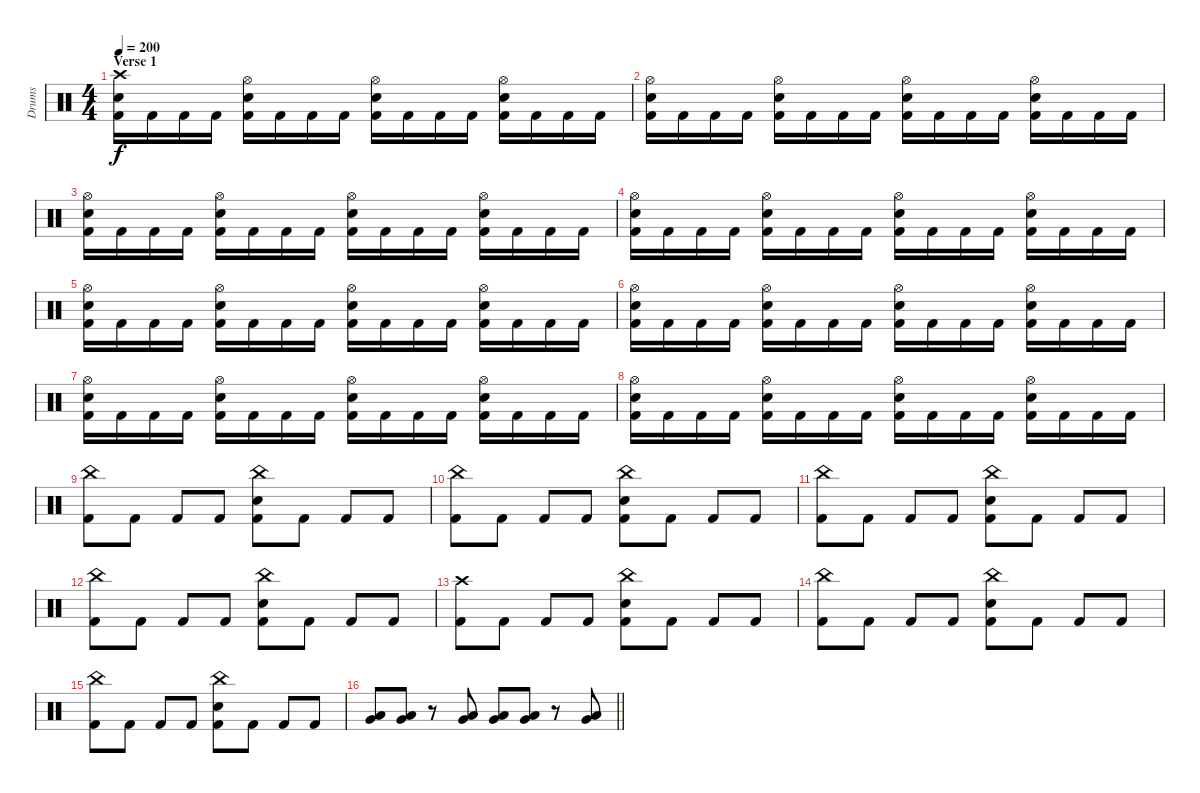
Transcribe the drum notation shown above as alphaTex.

\track ("Drums" "Drums") {instrument percussion}
\staff {score}
\articulation defaults
\ts (4 4)
\section ("" "Verse 1")
\tempo 200
\clef neutral
\ks c
("Crash high (hit)" "Electric Snare (hit)" "Kick (hit) 2").16{dy f} "Kick (hit) 2".16 "Kick (hit) 2".16 "Kick (hit) 2".16 ("Hi-Hat (open)" "Electric Snare (hit)" "Kick (hit) 2").16 "Kick (hit) 2".16 "Kick (hit) 2".16 "Kick (hit) 2".16 ("Hi-Hat (open)" "Electric Snare (hit)" "Kick (hit) 2").16 "Kick (hit) 2".16 "Kick (hit) 2".16 "Kick (hit) 2".16 ("Hi-Hat (open)" "Electric Snare (hit)" "Kick (hit) 2").16 "Kick (hit) 2".16 "Kick (hit) 2".16 "Kick (hit) 2".16 |
("Hi-Hat (open)" "Electric Snare (hit)" "Kick (hit) 2").16 "Kick (hit) 2".16 "Kick (hit) 2".16 "Kick (hit) 2".16 ("Hi-Hat (open)" "Electric Snare (hit)" "Kick (hit) 2").16 "Kick (hit) 2".16 "Kick (hit) 2".16 "Kick (hit) 2".16 ("Hi-Hat (open)" "Electric Snare (hit)" "Kick (hit) 2").16 "Kick (hit) 2".16 "Kick (hit) 2".16 "Kick (hit) 2".16 ("Hi-Hat (open)" "Electric Snare (hit)" "Kick (hit) 2").16 "Kick (hit) 2".16 "Kick (hit) 2".16 "Kick (hit) 2".16 |
("Hi-Hat (open)" "Electric Snare (hit)" "Kick (hit) 2").16 "Kick (hit) 2".16 "Kick (hit) 2".16 "Kick (hit) 2".16 ("Hi-Hat (open)" "Electric Snare (hit)" "Kick (hit) 2").16 "Kick (hit) 2".16 "Kick (hit) 2".16 "Kick (hit) 2".16 ("Hi-Hat (open)" "Electric Snare (hit)" "Kick (hit) 2").16 "Kick (hit) 2".16 "Kick (hit) 2".16 "Kick (hit) 2".16 ("Hi-Hat (open)" "Electric Snare (hit)" "Kick (hit) 2").16 "Kick (hit) 2".16 "Kick (hit) 2".16 "Kick (hit) 2".16 |
("Hi-Hat (open)" "Electric Snare (hit)" "Kick (hit) 2").16 "Kick (hit) 2".16 "Kick (hit) 2".16 "Kick (hit) 2".16 ("Hi-Hat (open)" "Electric Snare (hit)" "Kick (hit) 2").16 "Kick (hit) 2".16 "Kick (hit) 2".16 "Kick (hit) 2".16 ("Hi-Hat (open)" "Electric Snare (hit)" "Kick (hit) 2").16 "Kick (hit) 2".16 "Kick (hit) 2".16 "Kick (hit) 2".16 ("Hi-Hat (open)" "Electric Snare (hit)" "Kick (hit) 2").16 "Kick (hit) 2".16 "Kick (hit) 2".16 "Kick (hit) 2".16 |
("Hi-Hat (open)" "Electric Snare (hit)" "Kick (hit) 2").16 "Kick (hit) 2".16 "Kick (hit) 2".16 "Kick (hit) 2".16 ("Hi-Hat (open)" "Electric Snare (hit)" "Kick (hit) 2").16 "Kick (hit) 2".16 "Kick (hit) 2".16 "Kick (hit) 2".16 ("Hi-Hat (open)" "Electric Snare (hit)" "Kick (hit) 2").16 "Kick (hit) 2".16 "Kick (hit) 2".16 "Kick (hit) 2".16 ("Hi-Hat (open)" "Electric Snare (hit)" "Kick (hit) 2").16 "Kick (hit) 2".16 "Kick (hit) 2".16 "Kick (hit) 2".16 |
("Hi-Hat (open)" "Electric Snare (hit)" "Kick (hit) 2").16 "Kick (hit) 2".16 "Kick (hit) 2".16 "Kick (hit) 2".16 ("Hi-Hat (open)" "Electric Snare (hit)" "Kick (hit) 2").16 "Kick (hit) 2".16 "Kick (hit) 2".16 "Kick (hit) 2".16 ("Hi-Hat (open)" "Electric Snare (hit)" "Kick (hit) 2").16 "Kick (hit) 2".16 "Kick (hit) 2".16 "Kick (hit) 2".16 ("Hi-Hat (open)" "Electric Snare (hit)" "Kick (hit) 2").16 "Kick (hit) 2".16 "Kick (hit) 2".16 "Kick (hit) 2".16 |
("Hi-Hat (open)" "Electric Snare (hit)" "Kick (hit) 2").16 "Kick (hit) 2".16 "Kick (hit) 2".16 "Kick (hit) 2".16 ("Hi-Hat (open)" "Electric Snare (hit)" "Kick (hit) 2").16 "Kick (hit) 2".16 "Kick (hit) 2".16 "Kick (hit) 2".16 ("Hi-Hat (open)" "Electric Snare (hit)" "Kick (hit) 2").16 "Kick (hit) 2".16 "Kick (hit) 2".16 "Kick (hit) 2".16 ("Hi-Hat (open)" "Electric Snare (hit)" "Kick (hit) 2").16 "Kick (hit) 2".16 "Kick (hit) 2".16 "Kick (hit) 2".16 |
("Hi-Hat (open)" "Electric Snare (hit)" "Kick (hit) 2").16 "Kick (hit) 2".16 "Kick (hit) 2".16 "Kick (hit) 2".16 ("Hi-Hat (open)" "Electric Snare (hit)" "Kick (hit) 2").16 "Kick (hit) 2".16 "Kick (hit) 2".16 "Kick (hit) 2".16 ("Hi-Hat (open)" "Electric Snare (hit)" "Kick (hit) 2").16 "Kick (hit) 2".16 "Kick (hit) 2".16 "Kick (hit) 2".16 ("Hi-Hat (open)" "Electric Snare (hit)" "Kick (hit) 2").16 "Kick (hit) 2".16 "Kick (hit) 2".16 "Kick (hit) 2".16 |
("China (hit)" "Kick (hit) 2").8 "Kick (hit) 2".8 "Kick (hit) 2".8 "Kick (hit) 2".8 ("China (hit)" "Electric Snare (hit)" "Kick (hit) 2").8 "Kick (hit) 2".8 "Kick (hit) 2".8 "Kick (hit) 2".8 |
("China (hit)" "Kick (hit) 2").8 "Kick (hit) 2".8 "Kick (hit) 2".8 "Kick (hit) 2".8 ("China (hit)" "Electric Snare (hit)" "Kick (hit) 2").8 "Kick (hit) 2".8 "Kick (hit) 2".8 "Kick (hit) 2".8 |
("China (hit)" "Kick (hit) 2").8 "Kick (hit) 2".8 "Kick (hit) 2".8 "Kick (hit) 2".8 ("China (hit)" "Electric Snare (hit)" "Kick (hit) 2").8 "Kick (hit) 2".8 "Kick (hit) 2".8 "Kick (hit) 2".8 |
("China (hit)" "Kick (hit) 2").8 "Kick (hit) 2".8 "Kick (hit) 2".8 "Kick (hit) 2".8 ("China (hit)" "Electric Snare (hit)" "Kick (hit) 2").8 "Kick (hit) 2".8 "Kick (hit) 2".8 "Kick (hit) 2".8 |
("Crash high (hit)" "Kick (hit) 2").8 "Kick (hit) 2".8 "Kick (hit) 2".8 "Kick (hit) 2".8 ("China (hit)" "Electric Snare (hit)" "Kick (hit) 2").8 "Kick (hit) 2".8 "Kick (hit) 2".8 "Kick (hit) 2".8 |
("China (hit)" "Kick (hit) 2").8 "Kick (hit) 2".8 "Kick (hit) 2".8 "Kick (hit) 2".8 ("China (hit)" "Electric Snare (hit)" "Kick (hit) 2").8 "Kick (hit) 2".8 "Kick (hit) 2".8 "Kick (hit) 2".8 |
("China (hit)" "Kick (hit) 2").8 "Kick (hit) 2".8 "Kick (hit) 2".8 "Kick (hit) 2".8 ("China (hit)" "Electric Snare (hit)" "Kick (hit) 2").8 "Kick (hit) 2".8 "Kick (hit) 2".8 "Kick (hit) 2".8 |
\barLineRight lightlight
("Low Tom (hit)" "Very Low Tom (hit)").8 ("Low Tom (hit)" "Very Low Tom (hit)").8 r.8 ("Low Tom (hit)" "Very Low Tom (hit)").8 ("Low Tom (hit)" "Very Low Tom (hit)").8 ("Low Tom (hit)" "Very Low Tom (hit)").8 r.8 ("Low Tom (hit)" "Very Low Tom (hit)").8
